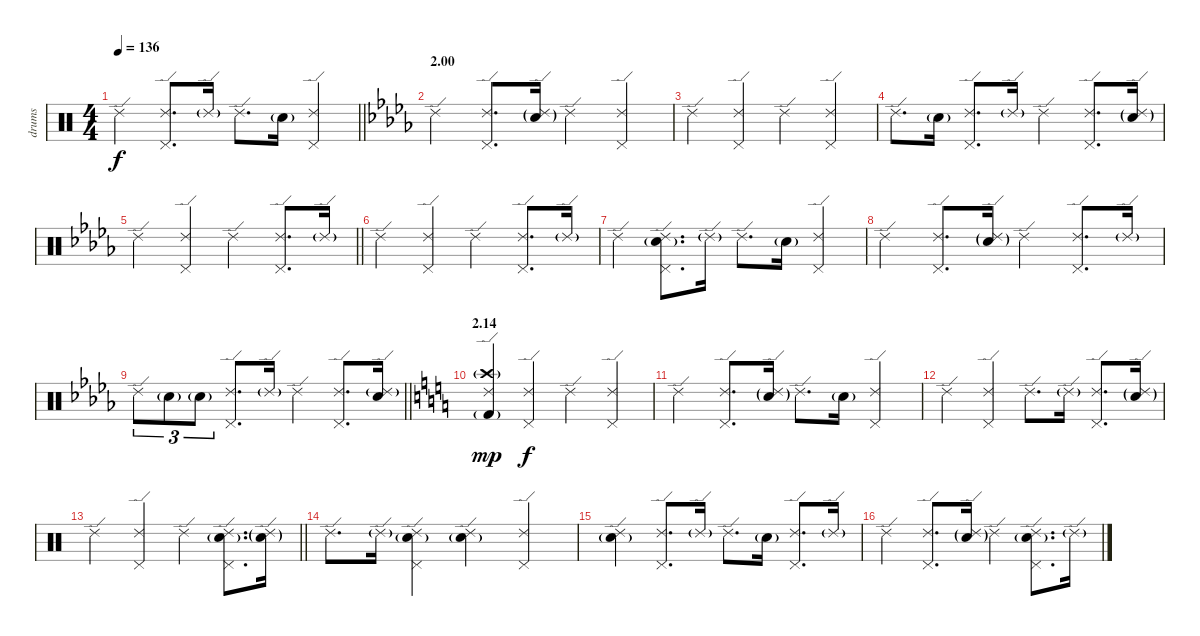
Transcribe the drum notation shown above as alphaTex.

\track ("drums" "drums") {instrument percussion}
\staff {score}
\articulation defaults
\ts (4 4)
\tempo 136
\clef neutral
\barLineRight lightlight
\ks c "Ride (edge) 2".4{dy f}
("Ride (edge) 2" "Pedal Hi-Hat (hit)").8{d} "Ride (edge) 2"{g}.16 "Ride (edge) 2".8{d} "Electric Snare (hit)"{g}.16 ("Ride (edge) 2" "Pedal Hi-Hat (hit)").4 |
\section ("" "2.00")
\ks db "Ride (edge) 2".4
("Ride (edge) 2" "Pedal Hi-Hat (hit)").8{d} ("Ride (edge) 2"{g} "Electric Snare (hit)"{g}).16 "Ride (edge) 2".4 ("Ride (edge) 2" "Pedal Hi-Hat (hit)").4 |
"Ride (edge) 2".4 ("Ride (edge) 2" "Pedal Hi-Hat (hit)").4 "Ride (edge) 2".4 ("Ride (edge) 2" "Pedal Hi-Hat (hit)").4 |
"Ride (edge) 2".8{d} "Electric Snare (hit)"{g}.16 ("Ride (edge) 2" "Pedal Hi-Hat (hit)").8{d} "Ride (edge) 2"{g}.16 "Ride (edge) 2".4 ("Ride (edge) 2" "Pedal Hi-Hat (hit)").8{d} ("Ride (edge) 2"{g} "Electric Snare (hit)"{g}).16 |
\barLineRight lightlight "Ride (edge) 2".4
("Ride (edge) 2" "Pedal Hi-Hat (hit)").4 "Ride (edge) 2".4 ("Ride (edge) 2" "Pedal Hi-Hat (hit)").8{d} "Ride (edge) 2"{g}.16 |
"Ride (edge) 2".4 ("Ride (edge) 2" "Pedal Hi-Hat (hit)").4 "Ride (edge) 2".4 ("Ride (edge) 2" "Pedal Hi-Hat (hit)").8{d} "Ride (edge) 2"{g}.16 |
"Ride (edge) 2".4 ("Ride (edge) 2" "Pedal Hi-Hat (hit)" "Electric Snare (hit)"{g}).8{d} "Ride (edge) 2"{g}.16 "Ride (edge) 2".8{d} "Electric Snare (hit)"{g}.16 ("Ride (edge) 2" "Pedal Hi-Hat (hit)").4 |
"Ride (edge) 2".4 ("Ride (edge) 2" "Pedal Hi-Hat (hit)").8{d} ("Ride (edge) 2"{g} "Electric Snare (hit)"{g}).16 "Ride (edge) 2".4 ("Ride (edge) 2" "Pedal Hi-Hat (hit)").8{d} "Ride (edge) 2"{g}.16 |
\barLineRight lightlight "Ride (edge) 2".8{tu (3 2)} "Electric Snare (hit)"{g}.8{tu (3 2)} "Electric Snare (hit)"{g}.8{tu (3 2)}
("Ride (edge) 2" "Pedal Hi-Hat (hit)").8{d} "Ride (edge) 2"{g}.16 "Ride (edge) 2".4 ("Ride (edge) 2" "Pedal Hi-Hat (hit)").8{d} ("Ride (edge) 2"{g} "Electric Snare (hit)").16 |
\section ("" "2.14")
\ks c
("Ride (edge) 2" "Crash high (hit)"{g} "Kick (hit) 2"{g}).4{dy mp} ("Ride (edge) 2" "Pedal Hi-Hat (hit)").4{dy f} "Ride (edge) 2".4 ("Ride (edge) 2" "Pedal Hi-Hat (hit)").4 |
"Ride (edge) 2".4 ("Ride (edge) 2" "Pedal Hi-Hat (hit)").8{d} ("Ride (edge) 2"{g} "Electric Snare (hit)"{g}).16 "Ride (edge) 2".8{d} "Electric Snare (hit)"{g}.16 ("Ride (edge) 2" "Pedal Hi-Hat (hit)").4 |
"Ride (edge) 2".4 ("Ride (edge) 2" "Pedal Hi-Hat (hit)").4 "Ride (edge) 2".8{d} "Ride (edge) 2"{g}.16 ("Ride (edge) 2" "Pedal Hi-Hat (hit)").8{d} ("Ride (edge) 2"{g} "Electric Snare (hit)"{g}).16 |
\barLineRight lightlight "Ride (edge) 2".4
("Ride (edge) 2" "Pedal Hi-Hat (hit)").4 "Ride (edge) 2".4 ("Ride (edge) 2" "Pedal Hi-Hat (hit)" "Electric Snare (hit)"{g}).8{d} ("Ride (edge) 2"{g} "Electric Snare (hit)"{g}).16 |
"Ride (edge) 2".8{d} "Ride (edge) 2"{g}.16 ("Ride (edge) 2" "Pedal Hi-Hat (hit)" "Electric Snare (hit)"{g}).4 ("Ride (edge) 2" "Electric Snare (hit)"{g}).4 ("Ride (edge) 2" "Pedal Hi-Hat (hit)").4 |
("Ride (edge) 2" "Electric Snare (hit)"{g}).4 ("Ride (edge) 2" "Pedal Hi-Hat (hit)").8{d} "Ride (edge) 2"{g}.16 "Ride (edge) 2".8{d} "Electric Snare (hit)"{g}.16 ("Ride (edge) 2" "Pedal Hi-Hat (hit)").8{d} "Ride (edge) 2"{g}.16 |
"Ride (edge) 2".4 ("Ride (edge) 2" "Pedal Hi-Hat (hit)").8{d} ("Ride (edge) 2"{g} "Electric Snare (hit)"{g}).16 "Ride (edge) 2".4 ("Ride (edge) 2" "Pedal Hi-Hat (hit)" "Electric Snare (hit)"{g}).8{d} "Ride (edge) 2"{g}.16
